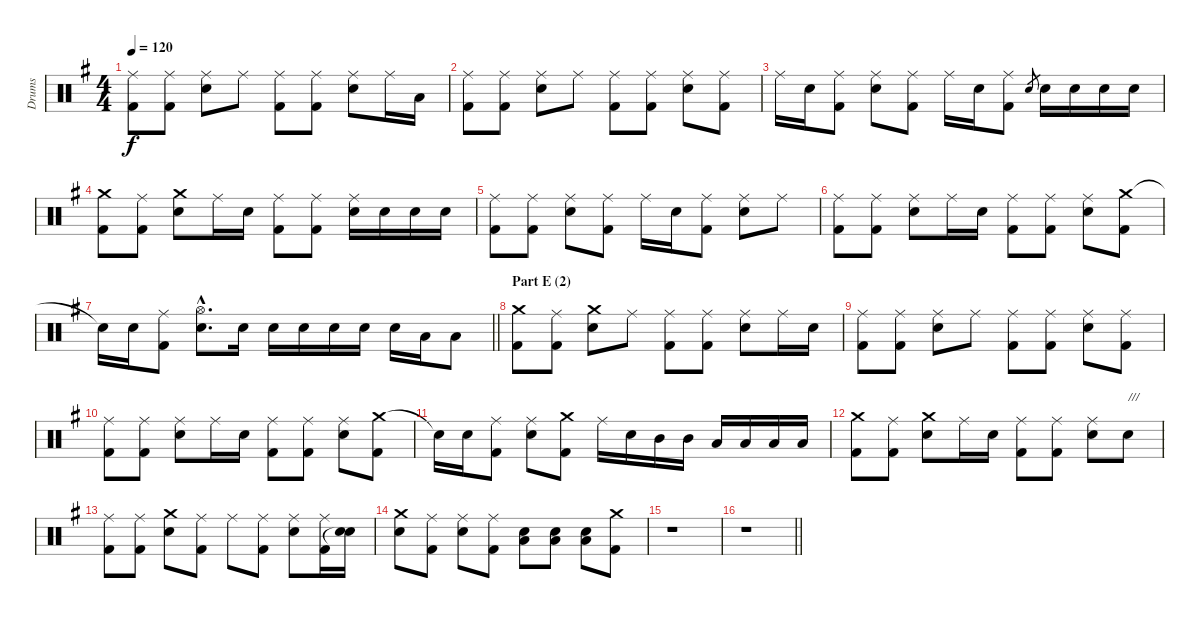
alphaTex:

\track ("Drums" "Drums") {instrument percussion}
\staff {score}
\articulation defaults
\ts (4 4)
\tempo 120
\clef neutral
\ks g
("Ride (middle)" "Kick (hit) 2").8{dy f} ("Ride (middle)" "Kick (hit) 2").8 ("Ride (middle)" "Electric Snare (hit)").8 "Ride (middle)".8 ("Ride (middle)" "Kick (hit) 2").8 ("Ride (middle)" "Kick (hit) 2").8 ("Ride (middle)" "Electric Snare (hit)").8 "Ride (middle)".16 "Low Floor Tom (hit)".16 |
("Ride (middle)" "Kick (hit) 2").8 ("Ride (middle)" "Kick (hit) 2").8 ("Ride (middle)" "Electric Snare (hit)").8 "Ride (middle)".8 ("Ride (middle)" "Kick (hit) 2").8 ("Ride (middle)" "Kick (hit) 2").8 ("Ride (middle)" "Electric Snare (hit)").8 ("Ride (middle)" "Kick (hit) 2").8 |
"Ride (middle)".16 "Electric Snare (hit)".16 ("Ride (middle)" "Kick (hit) 2").8 ("Ride (middle)" "Electric Snare (hit)").8 ("Ride (middle)" "Kick (hit) 2").8 "Ride (middle)".16 "Electric Snare (hit)".16 ("Ride (middle)" "Kick (hit) 2").8 "Electric Snare (hit)".8{gr} "Electric Snare (hit)".16 "Electric Snare (hit)".16 "Electric Snare (hit)".16 "Electric Snare (hit)".16 |
("Crash medium (hit)" "Kick (hit) 2").8 ("Ride (middle)" "Kick (hit) 2").8 ("Crash medium (hit)" "Electric Snare (hit)").8 "Ride (middle)".16 "Electric Snare (hit)".16 ("Ride (middle)" "Kick (hit) 2").8 ("Ride (middle)" "Kick (hit) 2").8 ("Ride (middle)" "Electric Snare (hit)").16 "Electric Snare (hit)".16 "Electric Snare (hit)".16 "Electric Snare (hit)".16 |
("Ride (middle)" "Kick (hit) 2").8 ("Ride (middle)" "Kick (hit) 2").8 ("Ride (middle)" "Electric Snare (hit)").8 ("Ride (middle)" "Kick (hit) 2").8 "Ride (middle)".16 "Electric Snare (hit)".16 ("Ride (middle)" "Kick (hit) 2").8 ("Ride (middle)" "Electric Snare (hit)").8 "Ride (middle)".8 |
("Ride (middle)" "Kick (hit) 2").8 ("Ride (middle)" "Kick (hit) 2").8 ("Ride (middle)" "Electric Snare (hit)").8 "Ride (middle)".16 "Snare (hit) 2".16 ("Ride (middle)" "Kick (hit) 2").8 ("Ride (middle)" "Kick (hit) 2").8 ("Ride (middle)" "Electric Snare (hit)").8 ("Crash medium (hit)" "Kick (hit) 2").8 |
\barLineRight lightlight "Snare (hit)"{t}.16 "Electric Snare (hit)".16
("Ride (middle)" "Kick (hit) 2").8 ("Hi-Hat (open)"{hac} "Electric Snare (hit)"{hac}).8{d} "Electric Snare (hit)".16 "Electric Snare (hit)".16 "Electric Snare (hit)".16 "Electric Snare (hit)".16 "Electric Snare (hit)".16 "Electric Snare (hit)".16 "Low Tom (hit)".16 "Low Floor Tom (hit)".8 |
\section ("" "Part E (2)")
("Crash medium (hit)" "Kick (hit) 2").8 ("Ride (middle)" "Kick (hit) 2").8 ("Crash medium (hit)" "Electric Snare (hit)").8 "Ride (middle)".8 ("Ride (middle)" "Kick (hit) 2").8 ("Ride (middle)" "Kick (hit) 2").8 ("Ride (middle)" "Electric Snare (hit)").8 "Ride (middle)".16 "Electric Snare (hit)".16 |
("Ride (middle)" "Kick (hit) 2").8 ("Ride (middle)" "Kick (hit) 2").8 ("Ride (middle)" "Electric Snare (hit)").8 "Ride (middle)".8 ("Ride (middle)" "Kick (hit) 2").8 ("Ride (middle)" "Kick (hit) 2").8 ("Ride (middle)" "Electric Snare (hit)").8 ("Ride (middle)" "Kick (hit) 2").8 |
("Ride (middle)" "Kick (hit) 2").8 ("Ride (middle)" "Kick (hit) 2").8 ("Ride (middle)" "Electric Snare (hit)").8 "Ride (middle)".16 "Electric Snare (hit)".16 ("Ride (middle)" "Kick (hit) 2").8 ("Ride (middle)" "Kick (hit) 2").8 ("Ride (middle)" "Electric Snare (hit)").8 ("Crash medium (hit)" "Kick (hit) 2").8 |
"Snare (hit)"{t}.16 "Electric Snare (hit)".16 ("Ride (middle)" "Kick (hit) 2").8 ("Ride (middle)" "Electric Snare (hit)").8 ("Crash medium (hit)" "Kick (hit) 2").8 "Ride (middle)".16 "Electric Snare (hit)".16 "Mid Tom (hit)".16 "Mid Tom (hit)".16 "Low Tom (hit)".16 "Low Tom (hit)".16 "Low Floor Tom (hit)".16 "Low Floor Tom (hit)".16 |
("Crash medium (hit)" "Kick (hit) 2").8 ("Ride (middle)" "Kick (hit) 2").8 ("Crash medium (hit)" "Electric Snare (hit)").8 "Ride (middle)".16 "Electric Snare (hit)".16 ("Ride (middle)" "Kick (hit) 2").8 ("Ride (middle)" "Kick (hit) 2").8 ("Ride (middle)" "Electric Snare (hit)").8 "Electric Snare (hit)".8{txt "///"} |
("Ride (middle)" "Kick (hit) 2").8 ("Ride (middle)" "Kick (hit) 2").8 ("Crash medium (hit)" "Electric Snare (hit)").8 ("Ride (middle)" "Kick (hit) 2").8 "Ride (middle)".8 ("Ride (middle)" "Kick (hit) 2").8 ("Ride (middle)" "Electric Snare (hit)").8 ("Ride (middle)" "Kick (hit) 2").16 ("Electric Snare (hit)" "Snare (hit)"{t}).16 |
("Crash medium (hit)" "Electric Snare (hit)").8 ("Ride (middle)" "Kick (hit) 2").8 ("Ride (middle)" "Electric Snare (hit)").8 ("Ride (middle)" "Kick (hit) 2").8 ("Electric Snare (hit)" "Low Floor Tom (hit)").8 ("Electric Snare (hit)" "Low Floor Tom (hit)").8 ("Electric Snare (hit)" "Low Floor Tom (hit)").8 ("Crash medium (hit)" "Kick (hit) 2").8 |
r.1 |
\barLineRight lightlight
r.1
